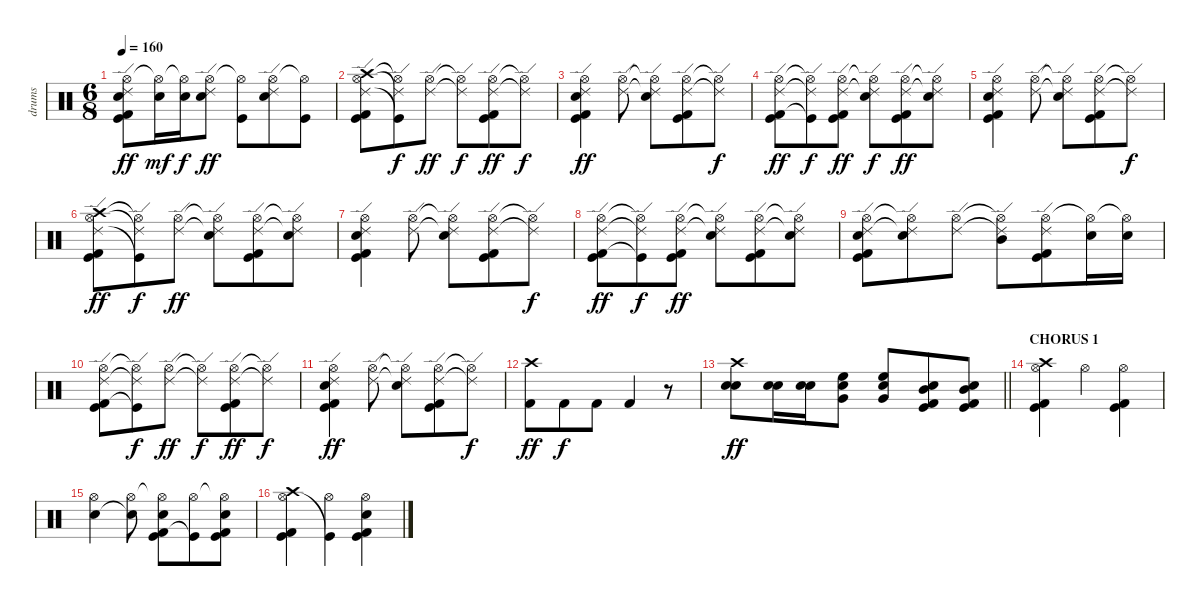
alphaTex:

\track ("drums" "drums") {instrument percussion}
\staff {score}
\articulation defaults
\ts (6 8)
\tempo 160
\clef neutral
\ks c
("Hi-Hat (open)" "Ride (edge) 2" "Snare (hit) 2" "Kick (hit) 2" "Kick (hit)").8{dy ff} ("Hi-Hat (open)"{t} "Electric Snare (hit)").16{dy mf} ("Hi-Hat (open)"{t} "Electric Snare (hit)").16{dy f} ("Hi-Hat (open)" "Ride (edge) 2" "Electric Snare (hit)").8{dy ff} ("Hi-Hat (open)"{t} "Kick (hit)").8 ("Hi-Hat (open)" "Ride (edge) 2" "Electric Snare (hit)").8 ("Hi-Hat (open)"{t} "Kick (hit)").8 |
("Crash high (hit)" "Hi-Hat (open)" "Ride (edge) 2" "Kick (hit) 2" "Kick (hit)").8 ("Hi-Hat (open)"{t} "Ride (edge) 2"{t} "Kick (hit)"{t}).8{dy f} ("Hi-Hat (open)" "Ride (edge) 2").8{dy ff} ("Hi-Hat (open)"{t} "Ride (edge) 2"{t}).8{dy f} ("Hi-Hat (open)" "Ride (edge) 2" "Kick (hit) 2" "Kick (hit)").8{dy ff} ("Hi-Hat (open)"{t} "Ride (edge) 2"{t}).8{dy f} |
("Hi-Hat (open)" "Ride (edge) 2" "Snare (hit) 2" "Kick (hit) 2" "Kick (hit)").4{dy ff} ("Hi-Hat (open)" "Ride (edge) 2").8 ("Hi-Hat (open)"{t} "Ride (edge) 2"{t} "Electric Snare (hit)").8 ("Hi-Hat (open)" "Ride (edge) 2" "Kick (hit) 2" "Kick (hit)").8 ("Hi-Hat (open)"{t} "Ride (edge) 2"{t}).8{dy f} |
("Hi-Hat (open)" "Ride (edge) 2" "Kick (hit) 2" "Kick (hit)").8{dy ff} ("Hi-Hat (open)"{t} "Ride (edge) 2"{t} "Kick (hit)"{t}).8{dy f} ("Hi-Hat (open)" "Ride (edge) 2" "Kick (hit) 2" "Kick (hit)").8{dy ff} ("Hi-Hat (open)"{t} "Ride (edge) 2"{t} "Electric Snare (hit)").8{dy f} ("Hi-Hat (open)" "Ride (edge) 2" "Kick (hit) 2" "Kick (hit)").8{dy ff} ("Hi-Hat (open)"{t} "Ride (edge) 2"{t} "Electric Snare (hit)").8 |
("Hi-Hat (open)" "Ride (edge) 2" "Snare (hit) 2" "Kick (hit) 2" "Kick (hit)").4 ("Hi-Hat (open)" "Ride (edge) 2").8 ("Hi-Hat (open)"{t} "Ride (edge) 2"{t} "Electric Snare (hit)").8 ("Hi-Hat (open)" "Ride (edge) 2" "Kick (hit) 2" "Kick (hit)").8 ("Hi-Hat (open)"{t} "Ride (edge) 2"{t}).8{dy f} |
("Crash high (hit)" "Hi-Hat (open)" "Ride (edge) 2" "Kick (hit) 2" "Kick (hit)").8{dy ff} ("Hi-Hat (open)"{t} "Ride (edge) 2"{t} "Kick (hit)"{t}).8{dy f} ("Hi-Hat (open)" "Ride (edge) 2").8{dy ff} ("Hi-Hat (open)"{t} "Ride (edge) 2"{t} "Electric Snare (hit)").8 ("Hi-Hat (open)" "Ride (edge) 2" "Kick (hit) 2" "Kick (hit)").8 ("Hi-Hat (open)"{t} "Ride (edge) 2"{t} "Electric Snare (hit)").8 |
("Hi-Hat (open)" "Ride (edge) 2" "Snare (hit) 2" "Kick (hit) 2" "Kick (hit)").4 ("Hi-Hat (open)" "Ride (edge) 2").8 ("Hi-Hat (open)"{t} "Ride (edge) 2"{t} "Electric Snare (hit)").8 ("Hi-Hat (open)" "Ride (edge) 2" "Kick (hit) 2" "Kick (hit)").8 ("Hi-Hat (open)"{t} "Ride (edge) 2"{t}).8{dy f} |
("Hi-Hat (open)" "Ride (edge) 2" "Kick (hit) 2" "Kick (hit)").8{dy ff} ("Hi-Hat (open)"{t} "Ride (edge) 2"{t} "Kick (hit)"{t}).8{dy f} ("Hi-Hat (open)" "Ride (edge) 2" "Kick (hit) 2" "Kick (hit)").8{dy ff} ("Hi-Hat (open)"{t} "Ride (edge) 2"{t} "Electric Snare (hit)").8 ("Hi-Hat (open)" "Ride (edge) 2" "Kick (hit) 2" "Kick (hit)").8 ("Hi-Hat (open)"{t} "Ride (edge) 2"{t} "Electric Snare (hit)").8 |
("Hi-Hat (open)" "Ride (edge) 2" "Snare (hit) 2" "Kick (hit) 2" "Kick (hit)").8 ("Hi-Hat (open)"{t} "Ride (edge) 2"{t} "Electric Snare (hit)").8 ("Hi-Hat (open)" "Ride (edge) 2").8 ("Hi-Hat (open)"{t} "Ride (edge) 2"{t} "Mid Tom (hit)").8 ("Hi-Hat (open)" "Ride (edge) 2" "Kick (hit) 2" "Kick (hit)").8 ("Hi-Hat (open)"{t} "Electric Snare (hit)").16 ("Hi-Hat (open)"{t} "Electric Snare (hit)").16 |
("Hi-Hat (open)" "Ride (edge) 2" "Kick (hit) 2" "Kick (hit)").8 ("Hi-Hat (open)"{t} "Ride (edge) 2"{t} "Kick (hit)"{t}).8{dy f} ("Hi-Hat (open)" "Ride (edge) 2").8{dy ff} ("Hi-Hat (open)"{t} "Ride (edge) 2"{t}).8{dy f} ("Hi-Hat (open)" "Ride (edge) 2" "Kick (hit) 2" "Kick (hit)").8{dy ff} ("Hi-Hat (open)"{t} "Ride (edge) 2"{t}).8{dy f} |
("Hi-Hat (open)" "Ride (edge) 2" "Snare (hit) 2" "Kick (hit) 2" "Kick (hit)").4{dy ff} ("Hi-Hat (open)" "Ride (edge) 2").8 ("Hi-Hat (open)"{t} "Ride (edge) 2"{t} "Electric Snare (hit)").8 ("Hi-Hat (open)" "Ride (edge) 2" "Kick (hit) 2" "Kick (hit)").8 ("Hi-Hat (open)"{t} "Ride (edge) 2"{t}).8{dy f} |
("Crash high (hit)" "Kick (hit) 2").8{dy ff} "Kick (hit) 2".8{dy f} "Kick (hit) 2".8 "Kick (hit) 2".4 r.8 |
\barLineRight lightlight
("Crash high (hit)" "Electric Snare (hit)" "Electric Snare (hit)").8{dy ff} ("Electric Snare (hit)" "Snare (hit) 2").16 ("Electric Snare (hit)" "Snare (hit) 2").16 ("Electric Snare (hit)" "High Floor Tom (hit)" "Very Low Tom (hit)").8 ("Electric Snare (hit)" "High Floor Tom (hit)" "Very Low Tom (hit)").8 ("Electric Snare (hit)" "Mid Tom (hit)" "Kick (hit)" "Kick (hit) 2").8 ("Electric Snare (hit)" "Mid Tom (hit)" "Kick (hit)" "Kick (hit) 2").8 |
\section ("" "CHORUS 1")
("Crash high (hit)" "Hi-Hat (open)" "Kick (hit) 2" "Kick (hit)").4 "Hi-Hat (open)".4 ("Hi-Hat (open)" "Kick (hit) 2" "Kick (hit)").4 |
("Hi-Hat (open)" "Electric Snare (hit)").4 ("Hi-Hat (open)" "Electric Snare (hit)"{t}).8 ("Hi-Hat (open)"{t} "Kick (hit) 2" "Electric Snare (hit)" "Kick (hit)").8 ("Hi-Hat (open)" "Kick (hit)"{t}).8 ("Hi-Hat (open)"{t} "Kick (hit) 2" "Electric Snare (hit)" "Kick (hit)").8 |
("Crash high (hit)" "Hi-Hat (open)" "Kick (hit) 2" "Kick (hit)").4 ("Hi-Hat (open)" "Kick (hit)"{t}).4 ("Hi-Hat (open)" "Electric Snare (hit)" "Kick (hit) 2" "Kick (hit)").4
